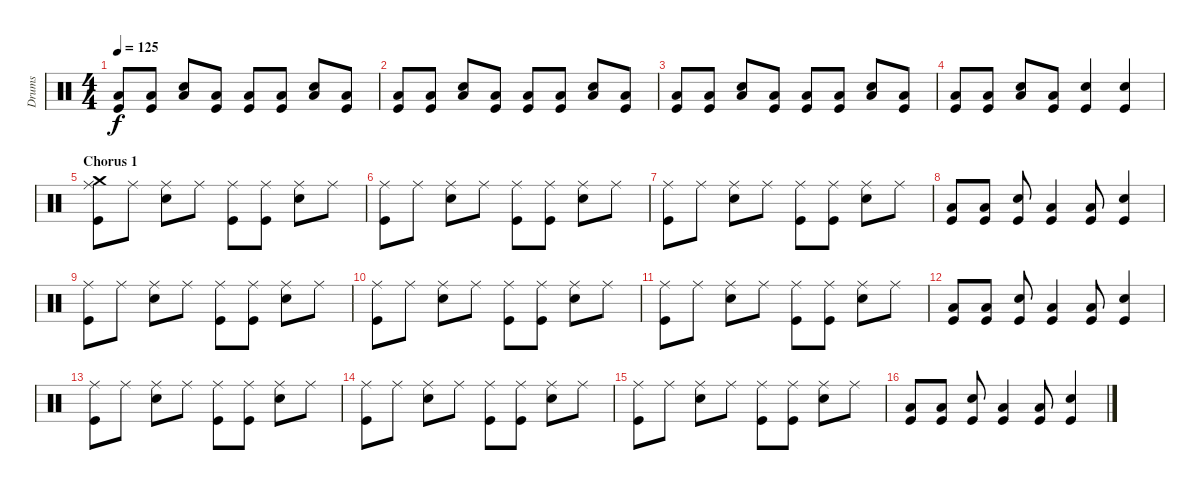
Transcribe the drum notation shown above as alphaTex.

\track ("Drums" "Drums") {instrument percussion}
\staff {score}
\articulation defaults
\ts (4 4)
\tempo 125
\clef neutral
\ks c
("Low Floor Tom (hit)" "Kick (hit)").8{dy f} ("Low Floor Tom (hit)" "Kick (hit)").8 ("Low Floor Tom (hit)" "Electric Snare (hit)").8 ("Low Floor Tom (hit)" "Kick (hit)").8 ("Low Floor Tom (hit)" "Kick (hit)").8 ("Low Floor Tom (hit)" "Kick (hit)").8 ("Low Floor Tom (hit)" "Electric Snare (hit)").8 ("Low Floor Tom (hit)" "Kick (hit)").8 |
("Low Floor Tom (hit)" "Kick (hit)").8 ("Low Floor Tom (hit)" "Kick (hit)").8 ("Low Floor Tom (hit)" "Electric Snare (hit)").8 ("Low Floor Tom (hit)" "Kick (hit)").8 ("Low Floor Tom (hit)" "Kick (hit)").8 ("Low Floor Tom (hit)" "Kick (hit)").8 ("Low Floor Tom (hit)" "Electric Snare (hit)").8 ("Low Floor Tom (hit)" "Kick (hit)").8 |
("Low Floor Tom (hit)" "Kick (hit)").8 ("Low Floor Tom (hit)" "Kick (hit)").8 ("Low Floor Tom (hit)" "Electric Snare (hit)").8 ("Low Floor Tom (hit)" "Kick (hit)").8 ("Low Floor Tom (hit)" "Kick (hit)").8 ("Low Floor Tom (hit)" "Kick (hit)").8 ("Low Floor Tom (hit)" "Electric Snare (hit)").8 ("Low Floor Tom (hit)" "Kick (hit)").8 |
("Low Floor Tom (hit)" "Kick (hit)").8 ("Low Floor Tom (hit)" "Kick (hit)").8 ("Low Floor Tom (hit)" "Electric Snare (hit)").8 ("Low Floor Tom (hit)" "Kick (hit)").8 ("Electric Snare (hit)" "Kick (hit)").4 ("Electric Snare (hit)" "Kick (hit)").4 |
\section ("" "Chorus 1")
("Crash medium (hit)" "Ride (middle)" "Kick (hit)").8 "Ride (middle)".8 ("Ride (middle)" "Electric Snare (hit)").8 "Ride (middle)".8 ("Ride (middle)" "Kick (hit)").8 ("Ride (middle)" "Kick (hit)").8 ("Ride (middle)" "Electric Snare (hit)").8 "Ride (middle)".8 |
("Ride (middle)" "Kick (hit)").8 "Ride (middle)".8 ("Ride (middle)" "Electric Snare (hit)").8 "Ride (middle)".8 ("Ride (middle)" "Kick (hit)").8 ("Ride (middle)" "Kick (hit)").8 ("Ride (middle)" "Electric Snare (hit)").8 "Ride (middle)".8 |
("Ride (middle)" "Kick (hit)").8 "Ride (middle)".8 ("Ride (middle)" "Electric Snare (hit)").8 "Ride (middle)".8 ("Ride (middle)" "Kick (hit)").8 ("Ride (middle)" "Kick (hit)").8 ("Ride (middle)" "Electric Snare (hit)").8 "Ride (middle)".8 |
("Low Floor Tom (hit)" "Kick (hit)").8 ("Low Floor Tom (hit)" "Kick (hit)").8 ("Electric Snare (hit)" "Kick (hit)").8 ("Low Floor Tom (hit)" "Kick (hit)").4 ("Low Floor Tom (hit)" "Kick (hit)").8 ("Electric Snare (hit)" "Kick (hit)").4 |
("Ride (middle)" "Kick (hit)").8 "Ride (middle)".8 ("Ride (middle)" "Electric Snare (hit)").8 "Ride (middle)".8 ("Ride (middle)" "Kick (hit)").8 ("Ride (middle)" "Kick (hit)").8 ("Ride (middle)" "Electric Snare (hit)").8 "Ride (middle)".8 |
("Ride (middle)" "Kick (hit)").8 "Ride (middle)".8 ("Ride (middle)" "Electric Snare (hit)").8 "Ride (middle)".8 ("Ride (middle)" "Kick (hit)").8 ("Ride (middle)" "Kick (hit)").8 ("Ride (middle)" "Electric Snare (hit)").8 "Ride (middle)".8 |
("Ride (middle)" "Kick (hit)").8 "Ride (middle)".8 ("Ride (middle)" "Electric Snare (hit)").8 "Ride (middle)".8 ("Ride (middle)" "Kick (hit)").8 ("Ride (middle)" "Kick (hit)").8 ("Ride (middle)" "Electric Snare (hit)").8 "Ride (middle)".8 |
("Low Floor Tom (hit)" "Kick (hit)").8 ("Low Floor Tom (hit)" "Kick (hit)").8 ("Electric Snare (hit)" "Kick (hit)").8 ("Low Floor Tom (hit)" "Kick (hit)").4 ("Low Floor Tom (hit)" "Kick (hit)").8 ("Electric Snare (hit)" "Kick (hit)").4 |
("Ride (middle)" "Kick (hit)").8 "Ride (middle)".8 ("Ride (middle)" "Electric Snare (hit)").8 "Ride (middle)".8 ("Ride (middle)" "Kick (hit)").8 ("Ride (middle)" "Kick (hit)").8 ("Ride (middle)" "Electric Snare (hit)").8 "Ride (middle)".8 |
("Ride (middle)" "Kick (hit)").8 "Ride (middle)".8 ("Ride (middle)" "Electric Snare (hit)").8 "Ride (middle)".8 ("Ride (middle)" "Kick (hit)").8 ("Ride (middle)" "Kick (hit)").8 ("Ride (middle)" "Electric Snare (hit)").8 "Ride (middle)".8 |
("Ride (middle)" "Kick (hit)").8 "Ride (middle)".8 ("Ride (middle)" "Electric Snare (hit)").8 "Ride (middle)".8 ("Ride (middle)" "Kick (hit)").8 ("Ride (middle)" "Kick (hit)").8 ("Ride (middle)" "Electric Snare (hit)").8 "Ride (middle)".8 |
("Low Floor Tom (hit)" "Kick (hit)").8 ("Low Floor Tom (hit)" "Kick (hit)").8 ("Electric Snare (hit)" "Kick (hit)").8 ("Low Floor Tom (hit)" "Kick (hit)").4 ("Low Floor Tom (hit)" "Kick (hit)").8 ("Electric Snare (hit)" "Kick (hit)").4
